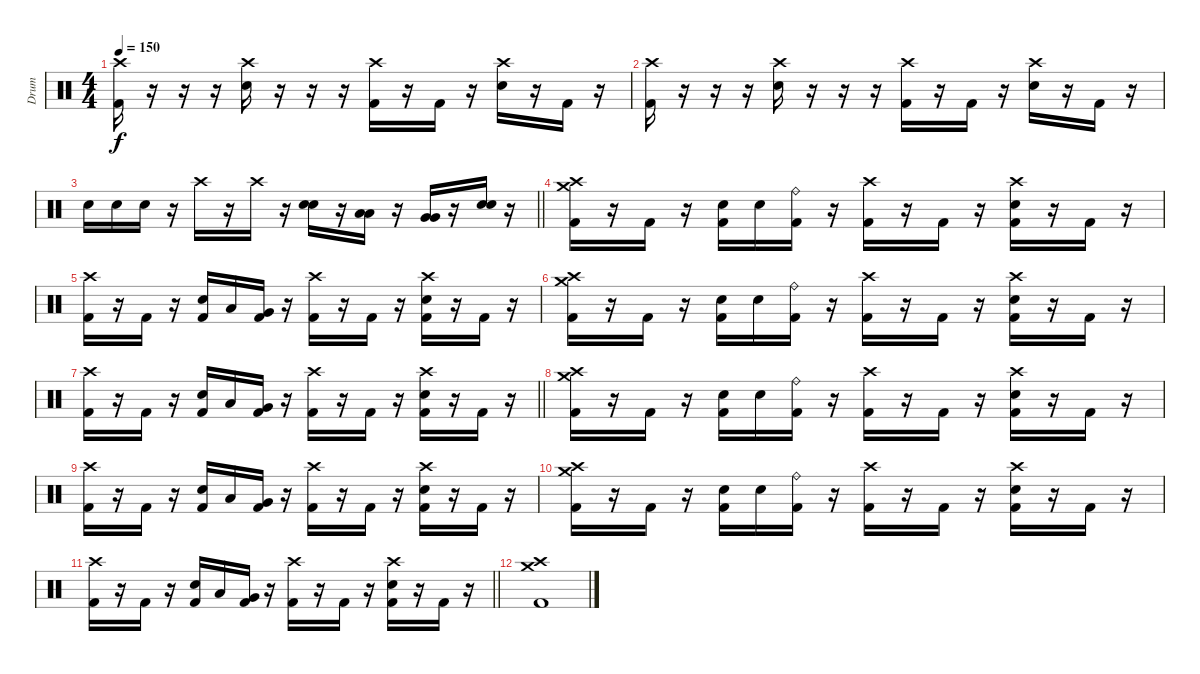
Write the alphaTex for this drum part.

\track ("Drum" "Drum") {instrument percussion}
\staff {score}
\articulation defaults
\ts (4 4)
\tempo 150
\clef neutral
\ks c
("Crash high (hit)" "Kick (hit) 2").16{dy f} r.16 r.16 r.16 ("Crash high (hit)" "Electric Snare (hit)").16 r.16 r.16 r.16 ("Crash high (hit)" "Kick (hit) 2").16 r.16 "Kick (hit) 2".16 r.16 ("Crash high (hit)" "Electric Snare (hit)").16 r.16 "Kick (hit) 2".16 r.16 |
("Crash high (hit)" "Kick (hit) 2").16 r.16 r.16 r.16 ("Crash high (hit)" "Electric Snare (hit)").16 r.16 r.16 r.16 ("Crash high (hit)" "Kick (hit) 2").16 r.16 "Kick (hit) 2".16 r.16 ("Crash high (hit)" "Electric Snare (hit)").16 r.16 "Kick (hit) 2".16 r.16 |
\barLineRight lightlight "Electric Snare (hit)".16 "Electric Snare (hit)".16 "Electric Snare (hit)".16
r.16 "Crash high (hit)".16 r.16 "Crash high (hit)".16 r.16 ("Electric Snare (hit)" "Electric Snare (hit)").16 r.16 ("Low Floor Tom (hit)" "Low Floor Tom (hit)").16 r.16 ("Very Low Tom (hit)" "Very Low Tom (hit)").16 r.16 ("Electric Snare (hit)" "Electric Snare (hit)").16 r.16 |
("Crash high (hit)" "Crash medium (hit)" "Kick (hit) 2").16 r.16 "Kick (hit) 2".16 r.16 ("Electric Snare (hit)" "Kick (hit) 2").16 "Electric Snare (hit)".16 ("Ride (bell)" "Kick (hit) 2").16 r.16 ("Crash high (hit)" "Kick (hit) 2").16 r.16 "Kick (hit) 2".16 r.16 ("Crash high (hit)" "Electric Snare (hit)" "Kick (hit) 2").16 r.16 "Kick (hit) 2".16 r.16 |
("Crash high (hit)" "Kick (hit) 2").16 r.16 "Kick (hit) 2".16 r.16 ("Electric Snare (hit)" "Kick (hit) 2").16 "Low Floor Tom (hit)".16 ("Very Low Tom (hit)" "Kick (hit) 2").16 r.16 ("Crash high (hit)" "Kick (hit) 2").16 r.16 "Kick (hit) 2".16 r.16 ("Crash high (hit)" "Electric Snare (hit)" "Kick (hit) 2").16 r.16 "Kick (hit) 2".16 r.16 |
("Crash high (hit)" "Crash medium (hit)" "Kick (hit) 2").16 r.16 "Kick (hit) 2".16 r.16 ("Electric Snare (hit)" "Kick (hit) 2").16 "Electric Snare (hit)".16 ("Ride (bell)" "Kick (hit) 2").16 r.16 ("Crash high (hit)" "Kick (hit) 2").16 r.16 "Kick (hit) 2".16 r.16 ("Crash high (hit)" "Electric Snare (hit)" "Kick (hit) 2").16 r.16 "Kick (hit) 2".16 r.16 |
\barLineRight lightlight
("Crash high (hit)" "Kick (hit) 2").16 r.16 "Kick (hit) 2".16 r.16 ("Electric Snare (hit)" "Kick (hit) 2").16 "Low Floor Tom (hit)".16 ("Very Low Tom (hit)" "Kick (hit) 2").16 r.16 ("Crash high (hit)" "Kick (hit) 2").16 r.16 "Kick (hit) 2".16 r.16 ("Crash high (hit)" "Electric Snare (hit)" "Kick (hit) 2").16 r.16 "Kick (hit) 2".16 r.16 |
("Crash high (hit)" "Crash medium (hit)" "Kick (hit) 2").16 r.16 "Kick (hit) 2".16 r.16 ("Electric Snare (hit)" "Kick (hit) 2").16 "Electric Snare (hit)".16 ("Ride (bell)" "Kick (hit) 2").16 r.16 ("Crash high (hit)" "Kick (hit) 2").16 r.16 "Kick (hit) 2".16 r.16 ("Crash high (hit)" "Electric Snare (hit)" "Kick (hit) 2").16 r.16 "Kick (hit) 2".16 r.16 |
("Crash high (hit)" "Kick (hit) 2").16 r.16 "Kick (hit) 2".16 r.16 ("Electric Snare (hit)" "Kick (hit) 2").16 "Low Floor Tom (hit)".16 ("Very Low Tom (hit)" "Kick (hit) 2").16 r.16 ("Crash high (hit)" "Kick (hit) 2").16 r.16 "Kick (hit) 2".16 r.16 ("Crash high (hit)" "Electric Snare (hit)" "Kick (hit) 2").16 r.16 "Kick (hit) 2".16 r.16 |
("Crash high (hit)" "Crash medium (hit)" "Kick (hit) 2").16 r.16 "Kick (hit) 2".16 r.16 ("Electric Snare (hit)" "Kick (hit) 2").16 "Electric Snare (hit)".16 ("Ride (bell)" "Kick (hit) 2").16 r.16 ("Crash high (hit)" "Kick (hit) 2").16 r.16 "Kick (hit) 2".16 r.16 ("Crash high (hit)" "Electric Snare (hit)" "Kick (hit) 2").16 r.16 "Kick (hit) 2".16 r.16 |
\barLineRight lightlight
("Crash high (hit)" "Kick (hit) 2").16 r.16 "Kick (hit) 2".16 r.16 ("Electric Snare (hit)" "Kick (hit) 2").16 "Low Floor Tom (hit)".16 ("Very Low Tom (hit)" "Kick (hit) 2").16 r.16 ("Crash high (hit)" "Kick (hit) 2").16 r.16 "Kick (hit) 2".16 r.16 ("Crash high (hit)" "Electric Snare (hit)" "Kick (hit) 2").16 r.16 "Kick (hit) 2".16 r.16 |
("Crash high (hit)" "Crash medium (hit)" "Kick (hit) 2").1
